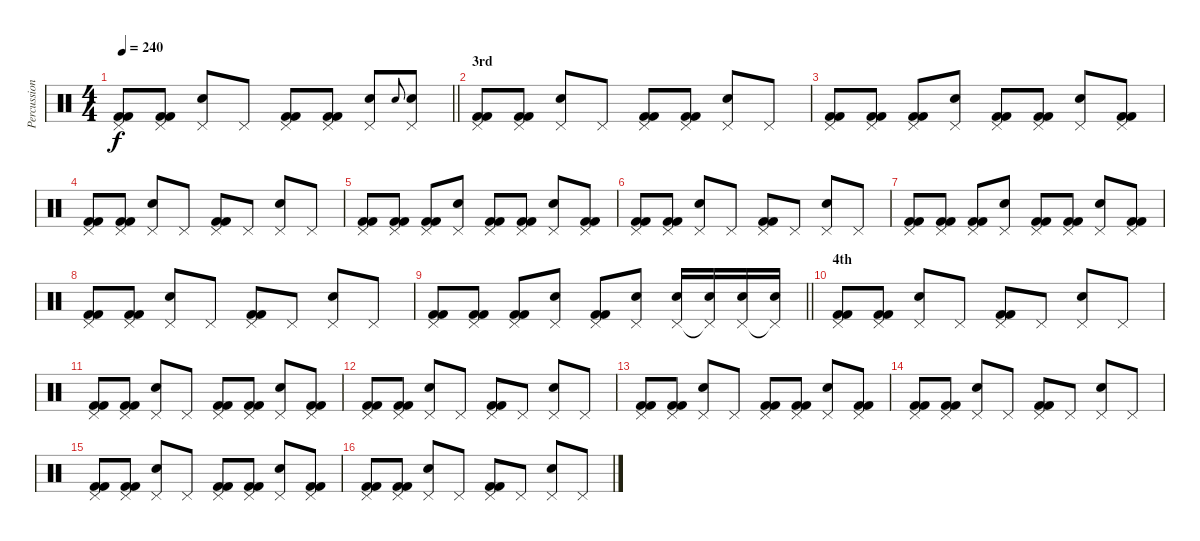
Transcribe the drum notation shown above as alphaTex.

\track ("Percussion" "Percussion") {instrument percussion}
\staff {score}
\articulation defaults
\ts (4 4)
\tempo 240
\clef neutral
\barLineRight lightlight
\ks c
("Pedal Hi-Hat (hit)" "Kick (hit) 2" "Kick (hit) 2").8{dy f} ("Pedal Hi-Hat (hit)" "Kick (hit) 2" "Kick (hit) 2").8 ("Pedal Hi-Hat (hit)" "Electric Snare (hit)").8 "Pedal Hi-Hat (hit)".8 ("Pedal Hi-Hat (hit)" "Kick (hit) 2" "Kick (hit) 2").8 ("Pedal Hi-Hat (hit)" "Kick (hit) 2" "Kick (hit) 2").8 ("Pedal Hi-Hat (hit)" "Electric Snare (hit)").8 "Electric Snare (hit)".8{gr onbeat} ("Pedal Hi-Hat (hit)" "Electric Snare (hit)").8 |
\section ("" "3rd")
("Pedal Hi-Hat (hit)" "Kick (hit) 2" "Kick (hit) 2").8 ("Pedal Hi-Hat (hit)" "Kick (hit) 2" "Kick (hit) 2").8 ("Pedal Hi-Hat (hit)" "Electric Snare (hit)").8 "Pedal Hi-Hat (hit)".8 ("Pedal Hi-Hat (hit)" "Kick (hit) 2" "Kick (hit) 2").8 ("Pedal Hi-Hat (hit)" "Kick (hit) 2" "Kick (hit) 2").8 ("Pedal Hi-Hat (hit)" "Electric Snare (hit)").8 "Pedal Hi-Hat (hit)".8 |
("Pedal Hi-Hat (hit)" "Kick (hit) 2" "Kick (hit) 2").8 ("Pedal Hi-Hat (hit)" "Kick (hit) 2" "Kick (hit) 2").8 ("Pedal Hi-Hat (hit)" "Kick (hit) 2" "Kick (hit) 2").8 ("Pedal Hi-Hat (hit)" "Electric Snare (hit)").8 ("Pedal Hi-Hat (hit)" "Kick (hit) 2" "Kick (hit) 2").8 ("Pedal Hi-Hat (hit)" "Kick (hit) 2" "Kick (hit) 2").8 ("Pedal Hi-Hat (hit)" "Electric Snare (hit)").8 ("Pedal Hi-Hat (hit)" "Kick (hit) 2" "Kick (hit) 2").8 |
("Pedal Hi-Hat (hit)" "Kick (hit) 2" "Kick (hit) 2").8 ("Pedal Hi-Hat (hit)" "Kick (hit) 2" "Kick (hit) 2").8 ("Pedal Hi-Hat (hit)" "Electric Snare (hit)").8 "Pedal Hi-Hat (hit)".8 ("Pedal Hi-Hat (hit)" "Kick (hit) 2" "Kick (hit) 2").8 "Pedal Hi-Hat (hit)".8 ("Pedal Hi-Hat (hit)" "Electric Snare (hit)").8 "Pedal Hi-Hat (hit)".8 |
("Pedal Hi-Hat (hit)" "Kick (hit) 2" "Kick (hit) 2").8 ("Pedal Hi-Hat (hit)" "Kick (hit) 2" "Kick (hit) 2").8 ("Pedal Hi-Hat (hit)" "Kick (hit) 2" "Kick (hit) 2").8 ("Pedal Hi-Hat (hit)" "Electric Snare (hit)").8 ("Pedal Hi-Hat (hit)" "Kick (hit) 2" "Kick (hit) 2").8 ("Pedal Hi-Hat (hit)" "Kick (hit) 2" "Kick (hit) 2").8 ("Pedal Hi-Hat (hit)" "Electric Snare (hit)").8 ("Pedal Hi-Hat (hit)" "Kick (hit) 2" "Kick (hit) 2").8 |
("Pedal Hi-Hat (hit)" "Kick (hit) 2" "Kick (hit) 2").8 ("Pedal Hi-Hat (hit)" "Kick (hit) 2" "Kick (hit) 2").8 ("Pedal Hi-Hat (hit)" "Electric Snare (hit)").8 "Pedal Hi-Hat (hit)".8 ("Pedal Hi-Hat (hit)" "Kick (hit) 2" "Kick (hit) 2").8 "Pedal Hi-Hat (hit)".8 ("Pedal Hi-Hat (hit)" "Electric Snare (hit)").8 "Pedal Hi-Hat (hit)".8 |
("Pedal Hi-Hat (hit)" "Kick (hit) 2" "Kick (hit) 2").8 ("Pedal Hi-Hat (hit)" "Kick (hit) 2" "Kick (hit) 2").8 ("Pedal Hi-Hat (hit)" "Kick (hit) 2" "Kick (hit) 2").8 ("Pedal Hi-Hat (hit)" "Electric Snare (hit)").8 ("Pedal Hi-Hat (hit)" "Kick (hit) 2" "Kick (hit) 2").8 ("Pedal Hi-Hat (hit)" "Kick (hit) 2" "Kick (hit) 2").8 ("Pedal Hi-Hat (hit)" "Electric Snare (hit)").8 ("Pedal Hi-Hat (hit)" "Kick (hit) 2" "Kick (hit) 2").8 |
("Pedal Hi-Hat (hit)" "Kick (hit) 2" "Kick (hit) 2").8 ("Pedal Hi-Hat (hit)" "Kick (hit) 2" "Kick (hit) 2").8 ("Pedal Hi-Hat (hit)" "Electric Snare (hit)").8 "Pedal Hi-Hat (hit)".8 ("Pedal Hi-Hat (hit)" "Kick (hit) 2" "Kick (hit) 2").8 "Pedal Hi-Hat (hit)".8 ("Pedal Hi-Hat (hit)" "Electric Snare (hit)").8 "Pedal Hi-Hat (hit)".8 |
\barLineRight lightlight
("Pedal Hi-Hat (hit)" "Kick (hit) 2" "Kick (hit) 2").8 ("Pedal Hi-Hat (hit)" "Kick (hit) 2" "Kick (hit) 2").8 ("Pedal Hi-Hat (hit)" "Kick (hit) 2" "Kick (hit) 2").8 ("Pedal Hi-Hat (hit)" "Electric Snare (hit)").8 ("Pedal Hi-Hat (hit)" "Kick (hit) 2" "Kick (hit) 2").8 ("Pedal Hi-Hat (hit)" "Electric Snare (hit)").8 ("Pedal Hi-Hat (hit)" "Electric Snare (hit)").16 ("Pedal Hi-Hat (hit)"{t} "Electric Snare (hit)").16 ("Pedal Hi-Hat (hit)" "Electric Snare (hit)").16 ("Pedal Hi-Hat (hit)"{t} "Electric Snare (hit)").16 |
\section ("" "4th")
("Pedal Hi-Hat (hit)" "Kick (hit) 2" "Kick (hit) 2").8 ("Pedal Hi-Hat (hit)" "Kick (hit) 2" "Kick (hit) 2").8 ("Pedal Hi-Hat (hit)" "Electric Snare (hit)").8 "Pedal Hi-Hat (hit)".8 ("Pedal Hi-Hat (hit)" "Kick (hit) 2" "Kick (hit) 2").8 "Pedal Hi-Hat (hit)".8 ("Pedal Hi-Hat (hit)" "Electric Snare (hit)").8 "Pedal Hi-Hat (hit)".8 |
("Pedal Hi-Hat (hit)" "Kick (hit) 2" "Kick (hit) 2").8 ("Pedal Hi-Hat (hit)" "Kick (hit) 2" "Kick (hit) 2").8 ("Pedal Hi-Hat (hit)" "Electric Snare (hit)").8 "Pedal Hi-Hat (hit)".8 ("Pedal Hi-Hat (hit)" "Kick (hit) 2" "Kick (hit) 2").8 ("Pedal Hi-Hat (hit)" "Kick (hit) 2" "Kick (hit) 2").8 ("Pedal Hi-Hat (hit)" "Electric Snare (hit)").8 ("Pedal Hi-Hat (hit)" "Kick (hit) 2" "Kick (hit) 2").8 |
("Pedal Hi-Hat (hit)" "Kick (hit) 2" "Kick (hit) 2").8 ("Pedal Hi-Hat (hit)" "Kick (hit) 2" "Kick (hit) 2").8 ("Pedal Hi-Hat (hit)" "Electric Snare (hit)").8 "Pedal Hi-Hat (hit)".8 ("Pedal Hi-Hat (hit)" "Kick (hit) 2" "Kick (hit) 2").8 "Pedal Hi-Hat (hit)".8 ("Pedal Hi-Hat (hit)" "Electric Snare (hit)").8 "Pedal Hi-Hat (hit)".8 |
("Pedal Hi-Hat (hit)" "Kick (hit) 2" "Kick (hit) 2").8 ("Pedal Hi-Hat (hit)" "Kick (hit) 2" "Kick (hit) 2").8 ("Pedal Hi-Hat (hit)" "Electric Snare (hit)").8 "Pedal Hi-Hat (hit)".8 ("Pedal Hi-Hat (hit)" "Kick (hit) 2" "Kick (hit) 2").8 ("Pedal Hi-Hat (hit)" "Kick (hit) 2" "Kick (hit) 2").8 ("Pedal Hi-Hat (hit)" "Electric Snare (hit)").8 ("Pedal Hi-Hat (hit)" "Kick (hit) 2" "Kick (hit) 2").8 |
("Pedal Hi-Hat (hit)" "Kick (hit) 2" "Kick (hit) 2").8 ("Pedal Hi-Hat (hit)" "Kick (hit) 2" "Kick (hit) 2").8 ("Pedal Hi-Hat (hit)" "Electric Snare (hit)").8 "Pedal Hi-Hat (hit)".8 ("Pedal Hi-Hat (hit)" "Kick (hit) 2" "Kick (hit) 2").8 "Pedal Hi-Hat (hit)".8 ("Pedal Hi-Hat (hit)" "Electric Snare (hit)").8 "Pedal Hi-Hat (hit)".8 |
("Pedal Hi-Hat (hit)" "Kick (hit) 2" "Kick (hit) 2").8 ("Pedal Hi-Hat (hit)" "Kick (hit) 2" "Kick (hit) 2").8 ("Pedal Hi-Hat (hit)" "Electric Snare (hit)").8 "Pedal Hi-Hat (hit)".8 ("Pedal Hi-Hat (hit)" "Kick (hit) 2" "Kick (hit) 2").8 ("Pedal Hi-Hat (hit)" "Kick (hit) 2" "Kick (hit) 2").8 ("Pedal Hi-Hat (hit)" "Electric Snare (hit)").8 ("Pedal Hi-Hat (hit)" "Kick (hit) 2" "Kick (hit) 2").8 |
("Pedal Hi-Hat (hit)" "Kick (hit) 2" "Kick (hit) 2").8 ("Pedal Hi-Hat (hit)" "Kick (hit) 2" "Kick (hit) 2").8 ("Pedal Hi-Hat (hit)" "Electric Snare (hit)").8 "Pedal Hi-Hat (hit)".8 ("Pedal Hi-Hat (hit)" "Kick (hit) 2" "Kick (hit) 2").8 "Pedal Hi-Hat (hit)".8 ("Pedal Hi-Hat (hit)" "Electric Snare (hit)").8 "Pedal Hi-Hat (hit)".8
